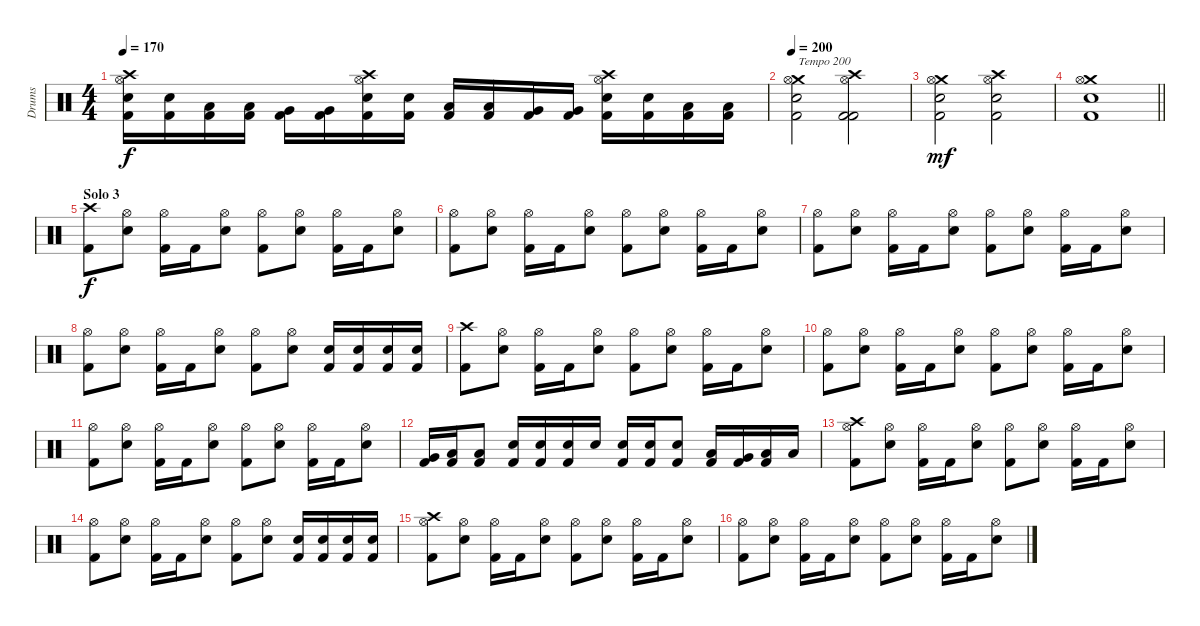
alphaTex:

\track ("Drums" "Drums") {instrument percussion}
\staff {score}
\articulation defaults
\ts (4 4)
\tempo 170
\clef neutral
\ks c
("Crash high (hit)" "Hi-Hat (open)" "Snare (hit) 2" "Kick (hit) 2").16{dy f} ("Snare (hit) 2" "Kick (hit) 2").16 ("Low Tom (hit)" "Kick (hit) 2").16 ("Low Tom (hit)" "Kick (hit) 2").16 ("Very Low Tom (hit)" "Kick (hit) 2").16 ("Very Low Tom (hit)" "Kick (hit) 2").16 ("Crash high (hit)" "Hi-Hat (open)" "Snare (hit) 2" "Kick (hit) 2").16 ("Snare (hit) 2" "Kick (hit) 2").16 ("Low Tom (hit)" "Kick (hit) 2").16 ("Low Tom (hit)" "Kick (hit) 2").16 ("Very Low Tom (hit)" "Kick (hit) 2").16 ("Very Low Tom (hit)" "Kick (hit) 2").16 ("Crash high (hit)" "Hi-Hat (open)" "Snare (hit) 2" "Kick (hit) 2").16 ("Snare (hit) 2" "Kick (hit) 2").16 ("Low Floor Tom (hit)" "Kick (hit) 2").16 ("Low Floor Tom (hit)" "Kick (hit) 2").16 |
\tempo 200
("Crash medium (hit)" "Hi-Hat (open)" "Snare (hit) 2" "Kick (hit) 2").2{txt "Tempo 200"} ("Crash high (hit)" "Hi-Hat (open)" "Kick (hit) 2" "Kick (hit) 2").2 |
("Crash medium (hit)" "Hi-Hat (open)" "Snare (hit) 2" "Kick (hit) 2").2{dy mf} ("Crash high (hit)" "Hi-Hat (open)" "Snare (hit) 2" "Kick (hit) 2").2 |
\barLineRight lightlight
("Crash medium (hit)" "Hi-Hat (open)" "Snare (hit) 2" "Kick (hit) 2").1 |
\section ("" "Solo 3")
("Crash high (hit)" "Kick (hit) 2").8{dy f} ("Hi-Hat (open)" "Snare (hit) 2").8 ("Hi-Hat (open)" "Kick (hit) 2").16 "Kick (hit) 2".16 ("Hi-Hat (open)" "Snare (hit) 2").8 ("Hi-Hat (open)" "Kick (hit) 2").8 ("Hi-Hat (open)" "Snare (hit) 2").8 ("Hi-Hat (open)" "Kick (hit) 2").16 "Kick (hit) 2".16 ("Hi-Hat (open)" "Snare (hit) 2").8 |
("Hi-Hat (open)" "Kick (hit) 2").8 ("Hi-Hat (open)" "Snare (hit) 2").8 ("Hi-Hat (open)" "Kick (hit) 2").16 "Kick (hit) 2".16 ("Hi-Hat (open)" "Snare (hit) 2").8 ("Hi-Hat (open)" "Kick (hit) 2").8 ("Hi-Hat (open)" "Snare (hit) 2").8 ("Hi-Hat (open)" "Kick (hit) 2").16 "Kick (hit) 2".16 ("Hi-Hat (open)" "Snare (hit) 2").8 |
("Hi-Hat (open)" "Kick (hit) 2").8 ("Hi-Hat (open)" "Snare (hit) 2").8 ("Hi-Hat (open)" "Kick (hit) 2").16 "Kick (hit) 2".16 ("Hi-Hat (open)" "Snare (hit) 2").8 ("Hi-Hat (open)" "Kick (hit) 2").8 ("Hi-Hat (open)" "Snare (hit) 2").8 ("Hi-Hat (open)" "Kick (hit) 2").16 "Kick (hit) 2".16 ("Hi-Hat (open)" "Snare (hit) 2").8 |
("Hi-Hat (open)" "Kick (hit) 2").8 ("Hi-Hat (open)" "Snare (hit) 2").8 ("Hi-Hat (open)" "Kick (hit) 2").16 "Kick (hit) 2".16 ("Hi-Hat (open)" "Snare (hit) 2").8 ("Hi-Hat (open)" "Kick (hit) 2").8 ("Hi-Hat (open)" "Snare (hit) 2").8 ("Snare (hit) 2" "Kick (hit) 2").16 ("Snare (hit) 2" "Kick (hit) 2").16 ("Snare (hit) 2" "Kick (hit) 2").16 ("Snare (hit) 2" "Kick (hit) 2").16 |
("Crash high (hit)" "Kick (hit) 2").8 ("Hi-Hat (open)" "Snare (hit) 2").8 ("Hi-Hat (open)" "Kick (hit) 2").16 "Kick (hit) 2".16 ("Hi-Hat (open)" "Snare (hit) 2").8 ("Hi-Hat (open)" "Kick (hit) 2").8 ("Hi-Hat (open)" "Snare (hit) 2").8 ("Hi-Hat (open)" "Kick (hit) 2").16 "Kick (hit) 2".16 ("Hi-Hat (open)" "Snare (hit) 2").8 |
("Hi-Hat (open)" "Kick (hit) 2").8 ("Hi-Hat (open)" "Snare (hit) 2").8 ("Hi-Hat (open)" "Kick (hit) 2").16 "Kick (hit) 2".16 ("Hi-Hat (open)" "Snare (hit) 2").8 ("Hi-Hat (open)" "Kick (hit) 2").8 ("Hi-Hat (open)" "Snare (hit) 2").8 ("Hi-Hat (open)" "Kick (hit) 2").16 "Kick (hit) 2".16 ("Hi-Hat (open)" "Snare (hit) 2").8 |
("Hi-Hat (open)" "Kick (hit) 2").8 ("Hi-Hat (open)" "Snare (hit) 2").8 ("Hi-Hat (open)" "Kick (hit) 2").16 "Kick (hit) 2".16 ("Hi-Hat (open)" "Snare (hit) 2").8 ("Hi-Hat (open)" "Kick (hit) 2").8 ("Hi-Hat (open)" "Snare (hit) 2").8 ("Hi-Hat (open)" "Kick (hit) 2").16 "Kick (hit) 2".16 ("Hi-Hat (open)" "Snare (hit) 2").8 |
("Very Low Tom (hit)" "Kick (hit) 2").16 ("Low Floor Tom (hit)" "Kick (hit) 2").16 ("Low Floor Tom (hit)" "Kick (hit) 2").8 ("Snare (hit) 2" "Kick (hit) 2").16 ("Snare (hit) 2" "Kick (hit) 2").16 ("Snare (hit) 2" "Kick (hit) 2").16 "Snare (hit) 2".16 ("Snare (hit) 2" "Kick (hit) 2").16 ("Snare (hit) 2" "Kick (hit) 2").16 ("Snare (hit) 2" "Kick (hit) 2").8 ("Low Tom (hit)" "Kick (hit) 2").16 ("Very Low Tom (hit)" "Kick (hit) 2").16 ("Low Floor Tom (hit)" "Kick (hit) 2").16 "Low Floor Tom (hit)".16 |
("Crash high (hit)" "Hi-Hat (open)" "Kick (hit) 2").8 ("Hi-Hat (open)" "Snare (hit) 2").8 ("Hi-Hat (open)" "Kick (hit) 2").16 "Kick (hit) 2".16 ("Hi-Hat (open)" "Snare (hit) 2").8 ("Hi-Hat (open)" "Kick (hit) 2").8 ("Hi-Hat (open)" "Snare (hit) 2").8 ("Hi-Hat (open)" "Kick (hit) 2").16 "Kick (hit) 2".16 ("Hi-Hat (open)" "Snare (hit) 2").8 |
("Hi-Hat (open)" "Kick (hit) 2").8 ("Hi-Hat (open)" "Snare (hit) 2").8 ("Hi-Hat (open)" "Kick (hit) 2").16 "Kick (hit) 2".16 ("Hi-Hat (open)" "Snare (hit) 2").8 ("Hi-Hat (open)" "Kick (hit) 2").8 ("Hi-Hat (open)" "Snare (hit) 2").8 ("Snare (hit) 2" "Kick (hit) 2").16 ("Snare (hit) 2" "Kick (hit) 2").16 ("Snare (hit) 2" "Kick (hit) 2").16 ("Snare (hit) 2" "Kick (hit) 2").16 |
("Crash high (hit)" "Hi-Hat (open)" "Kick (hit) 2").8 ("Hi-Hat (open)" "Snare (hit) 2").8 ("Hi-Hat (open)" "Kick (hit) 2").16 "Kick (hit) 2".16 ("Hi-Hat (open)" "Snare (hit) 2").8 ("Hi-Hat (open)" "Kick (hit) 2").8 ("Hi-Hat (open)" "Snare (hit) 2").8 ("Hi-Hat (open)" "Kick (hit) 2").16 "Kick (hit) 2".16 ("Hi-Hat (open)" "Snare (hit) 2").8 |
("Hi-Hat (open)" "Kick (hit) 2").8 ("Hi-Hat (open)" "Snare (hit) 2").8 ("Hi-Hat (open)" "Kick (hit) 2").16 "Kick (hit) 2".16 ("Hi-Hat (open)" "Snare (hit) 2").8 ("Hi-Hat (open)" "Kick (hit) 2").8 ("Hi-Hat (open)" "Snare (hit) 2").8 ("Hi-Hat (open)" "Kick (hit) 2").16 "Kick (hit) 2".16 ("Hi-Hat (open)" "Snare (hit) 2").8
